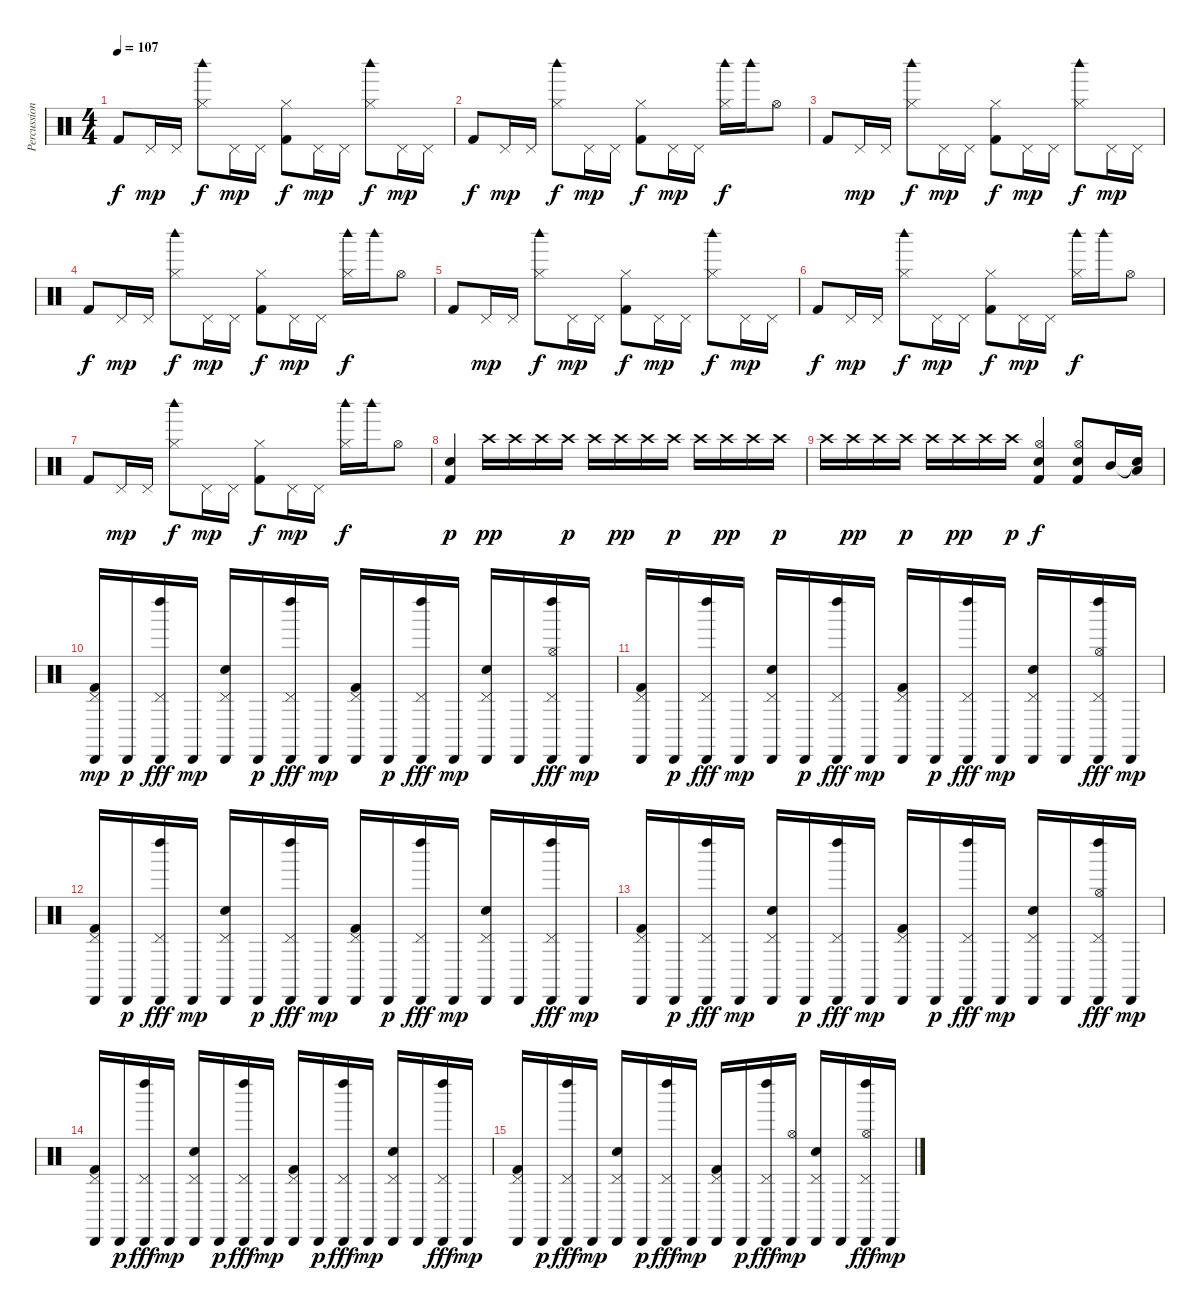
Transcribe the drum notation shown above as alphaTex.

\track ("Percussions" "Percussion") {instrument percussion}
\staff {score}
\articulation defaults
\ts (4 4)
\tempo 107
\clef neutral
\ks c "Kick (hit) 2".8{dy f} "Pedal Hi-Hat (hit)".16{dy mp} "Pedal Hi-Hat (hit)".16
("Hi-Hat (closed)" "Woodblock high (hit)").8{dy f} "Pedal Hi-Hat (hit)".16{dy mp} "Pedal Hi-Hat (hit)".16 ("Hi-Hat (closed)" "Kick (hit) 2").8{dy f} "Pedal Hi-Hat (hit)".16{dy mp} "Pedal Hi-Hat (hit)".16 ("Hi-Hat (closed)" "Woodblock high (hit)").8{dy f} "Pedal Hi-Hat (hit)".16{dy mp} "Pedal Hi-Hat (hit)".16 |
"Kick (hit) 2".8{dy f} "Pedal Hi-Hat (hit)".16{dy mp} "Pedal Hi-Hat (hit)".16 ("Hi-Hat (closed)" "Woodblock high (hit)").8{dy f} "Pedal Hi-Hat (hit)".16{dy mp} "Pedal Hi-Hat (hit)".16 ("Hi-Hat (closed)" "Kick (hit) 2").8{dy f} "Pedal Hi-Hat (hit)".16{dy mp} "Pedal Hi-Hat (hit)".16 ("Hi-Hat (closed)" "Woodblock high (hit)").16{dy f} "Woodblock high (hit)".16 "Hi-Hat (open)".8 |
"Kick (hit) 2".8 "Pedal Hi-Hat (hit)".16{dy mp} "Pedal Hi-Hat (hit)".16 ("Hi-Hat (closed)" "Woodblock high (hit)").8{dy f} "Pedal Hi-Hat (hit)".16{dy mp} "Pedal Hi-Hat (hit)".16 ("Hi-Hat (closed)" "Kick (hit) 2").8{dy f} "Pedal Hi-Hat (hit)".16{dy mp} "Pedal Hi-Hat (hit)".16 ("Hi-Hat (closed)" "Woodblock high (hit)").8{dy f} "Pedal Hi-Hat (hit)".16{dy mp} "Pedal Hi-Hat (hit)".16 |
"Kick (hit) 2".8{dy f} "Pedal Hi-Hat (hit)".16{dy mp} "Pedal Hi-Hat (hit)".16 ("Hi-Hat (closed)" "Woodblock high (hit)").8{dy f} "Pedal Hi-Hat (hit)".16{dy mp} "Pedal Hi-Hat (hit)".16 ("Hi-Hat (closed)" "Kick (hit) 2").8{dy f} "Pedal Hi-Hat (hit)".16{dy mp} "Pedal Hi-Hat (hit)".16 ("Hi-Hat (closed)" "Woodblock high (hit)").16{dy f} "Woodblock high (hit)".16 "Hi-Hat (open)".8 |
"Kick (hit) 2".8 "Pedal Hi-Hat (hit)".16{dy mp} "Pedal Hi-Hat (hit)".16 ("Hi-Hat (closed)" "Woodblock high (hit)").8{dy f} "Pedal Hi-Hat (hit)".16{dy mp} "Pedal Hi-Hat (hit)".16 ("Hi-Hat (closed)" "Kick (hit) 2").8{dy f} "Pedal Hi-Hat (hit)".16{dy mp} "Pedal Hi-Hat (hit)".16 ("Hi-Hat (closed)" "Woodblock high (hit)").8{dy f} "Pedal Hi-Hat (hit)".16{dy mp} "Pedal Hi-Hat (hit)".16 |
"Kick (hit) 2".8{dy f} "Pedal Hi-Hat (hit)".16{dy mp} "Pedal Hi-Hat (hit)".16 ("Hi-Hat (closed)" "Woodblock high (hit)").8{dy f} "Pedal Hi-Hat (hit)".16{dy mp} "Pedal Hi-Hat (hit)".16 ("Hi-Hat (closed)" "Kick (hit) 2").8{dy f} "Pedal Hi-Hat (hit)".16{dy mp} "Pedal Hi-Hat (hit)".16 ("Hi-Hat (closed)" "Woodblock high (hit)").16{dy f} "Woodblock high (hit)".16 "Hi-Hat (open)".8 |
"Kick (hit) 2".8 "Pedal Hi-Hat (hit)".16{dy mp} "Pedal Hi-Hat (hit)".16 ("Hi-Hat (closed)" "Woodblock high (hit)").8{dy f} "Pedal Hi-Hat (hit)".16{dy mp} "Pedal Hi-Hat (hit)".16 ("Hi-Hat (closed)" "Kick (hit) 2").8{dy f} "Pedal Hi-Hat (hit)".16{dy mp} "Pedal Hi-Hat (hit)".16 ("Hi-Hat (closed)" "Woodblock high (hit)").16{dy f} "Woodblock high (hit)".16 "Hi-Hat (open)".8 |
("Snare (hit) 2" "Kick (hit) 2").4{dy p} "Crash high (hit)".16{dy pp} "Crash high (hit)".16 "Crash high (hit)".16 "Crash high (hit)".16{dy p} "Crash high (hit)".16 "Crash high (hit)".16{dy pp} "Crash high (hit)".16 "Crash high (hit)".16{dy p} "Crash high (hit)".16 "Crash high (hit)".16{dy pp} "Crash high (hit)".16 "Crash high (hit)".16{dy p} |
"Crash high (hit)".16 "Crash high (hit)".16{dy pp} "Crash high (hit)".16 "Crash high (hit)".16{dy p} "Crash high (hit)".16 "Crash high (hit)".16{dy pp} "Crash high (hit)".16 "Crash high (hit)".16{dy p} ("Hi-Hat (open)" "Snare (hit) 2" "Kick (hit) 2").4{dy f} ("Hi-Hat (open)" "Snare (hit) 2" "Kick (hit) 2").8 "Mid Tom (hit)".16 ("Snare (hit)"{t} "Low Tom (hit)").16 |
("Cabasa (hit)" "Pedal Hi-Hat (hit)" "Kick (hit) 2").16{dy mp} "Cabasa (hit)".16{dy p} ("Cabasa (hit)" "Left Maraca (hit)" "Pedal Hi-Hat (hit)").16{dy fff} "Cabasa (hit)".16{dy mp} ("Cabasa (hit)" "Pedal Hi-Hat (hit)" "Snare (hit) 2").16 "Cabasa (hit)".16{dy p} ("Cabasa (hit)" "Left Maraca (hit)" "Pedal Hi-Hat (hit)").16{dy fff} "Cabasa (hit)".16{dy mp} ("Cabasa (hit)" "Pedal Hi-Hat (hit)" "Kick (hit) 2").16 "Cabasa (hit)".16{dy p} ("Cabasa (hit)" "Left Maraca (hit)" "Pedal Hi-Hat (hit)").16{dy fff} "Cabasa (hit)".16{dy mp} ("Cabasa (hit)" "Pedal Hi-Hat (hit)" "Snare (hit) 2").16 "Cabasa (hit)".16 ("Cabasa (hit)" "Left Maraca (hit)" "Pedal Hi-Hat (hit)" "Hi-Hat (open)").16{dy fff} "Cabasa (hit)".16{dy mp} |
("Cabasa (hit)" "Pedal Hi-Hat (hit)" "Kick (hit) 2").16 "Cabasa (hit)".16{dy p} ("Cabasa (hit)" "Left Maraca (hit)" "Pedal Hi-Hat (hit)").16{dy fff} "Cabasa (hit)".16{dy mp} ("Cabasa (hit)" "Pedal Hi-Hat (hit)" "Snare (hit) 2").16 "Cabasa (hit)".16{dy p} ("Cabasa (hit)" "Left Maraca (hit)" "Pedal Hi-Hat (hit)").16{dy fff} "Cabasa (hit)".16{dy mp} ("Cabasa (hit)" "Pedal Hi-Hat (hit)" "Kick (hit) 2").16 "Cabasa (hit)".16{dy p} ("Cabasa (hit)" "Left Maraca (hit)" "Pedal Hi-Hat (hit)").16{dy fff} "Cabasa (hit)".16{dy mp} ("Cabasa (hit)" "Pedal Hi-Hat (hit)" "Snare (hit) 2").16 "Cabasa (hit)".16 ("Cabasa (hit)" "Left Maraca (hit)" "Pedal Hi-Hat (hit)" "Hi-Hat (open)").16{dy fff} "Cabasa (hit)".16{dy mp} |
("Cabasa (hit)" "Pedal Hi-Hat (hit)" "Kick (hit) 2").16 "Cabasa (hit)".16{dy p} ("Cabasa (hit)" "Left Maraca (hit)" "Pedal Hi-Hat (hit)").16{dy fff} "Cabasa (hit)".16{dy mp} ("Cabasa (hit)" "Pedal Hi-Hat (hit)" "Snare (hit) 2").16 "Cabasa (hit)".16{dy p} ("Cabasa (hit)" "Left Maraca (hit)" "Pedal Hi-Hat (hit)").16{dy fff} "Cabasa (hit)".16{dy mp} ("Cabasa (hit)" "Pedal Hi-Hat (hit)" "Kick (hit) 2").16 "Cabasa (hit)".16{dy p} ("Cabasa (hit)" "Left Maraca (hit)" "Pedal Hi-Hat (hit)").16{dy fff} "Cabasa (hit)".16{dy mp} ("Cabasa (hit)" "Pedal Hi-Hat (hit)" "Snare (hit) 2").16 "Cabasa (hit)".16 ("Cabasa (hit)" "Left Maraca (hit)" "Pedal Hi-Hat (hit)").16{dy fff} "Cabasa (hit)".16{dy mp} |
("Cabasa (hit)" "Pedal Hi-Hat (hit)" "Kick (hit) 2").16{volume 0} "Cabasa (hit)".16{dy p} ("Cabasa (hit)" "Left Maraca (hit)" "Pedal Hi-Hat (hit)").16{dy fff} "Cabasa (hit)".16{dy mp} ("Cabasa (hit)" "Pedal Hi-Hat (hit)" "Snare (hit) 2").16 "Cabasa (hit)".16{dy p} ("Cabasa (hit)" "Left Maraca (hit)" "Pedal Hi-Hat (hit)").16{dy fff} "Cabasa (hit)".16{dy mp} ("Cabasa (hit)" "Pedal Hi-Hat (hit)" "Kick (hit) 2").16 "Cabasa (hit)".16{dy p} ("Cabasa (hit)" "Left Maraca (hit)" "Pedal Hi-Hat (hit)").16{dy fff} "Cabasa (hit)".16{dy mp} ("Cabasa (hit)" "Pedal Hi-Hat (hit)" "Snare (hit) 2").16 "Cabasa (hit)".16 ("Cabasa (hit)" "Left Maraca (hit)" "Pedal Hi-Hat (hit)" "Hi-Hat (open)").16{dy fff} "Cabasa (hit)".16{dy mp} |
("Cabasa (hit)" "Pedal Hi-Hat (hit)" "Kick (hit) 2").16 "Cabasa (hit)".16{dy p} ("Cabasa (hit)" "Left Maraca (hit)" "Pedal Hi-Hat (hit)").16{dy fff} "Cabasa (hit)".16{dy mp} ("Cabasa (hit)" "Pedal Hi-Hat (hit)" "Snare (hit) 2").16 "Cabasa (hit)".16{dy p} ("Cabasa (hit)" "Left Maraca (hit)" "Pedal Hi-Hat (hit)").16{dy fff} "Cabasa (hit)".16{dy mp} ("Cabasa (hit)" "Pedal Hi-Hat (hit)" "Kick (hit) 2").16 "Cabasa (hit)".16{dy p} ("Cabasa (hit)" "Left Maraca (hit)" "Pedal Hi-Hat (hit)").16{dy fff} "Cabasa (hit)".16{dy mp} ("Cabasa (hit)" "Pedal Hi-Hat (hit)" "Snare (hit) 2").16 "Cabasa (hit)".16 ("Cabasa (hit)" "Left Maraca (hit)" "Pedal Hi-Hat (hit)").16{dy fff} "Cabasa (hit)".16{dy mp} |
("Cabasa (hit)" "Pedal Hi-Hat (hit)" "Kick (hit) 2").16 "Cabasa (hit)".16{dy p} ("Cabasa (hit)" "Left Maraca (hit)" "Pedal Hi-Hat (hit)").16{dy fff} "Cabasa (hit)".16{dy mp} ("Cabasa (hit)" "Pedal Hi-Hat (hit)" "Snare (hit) 2").16 "Cabasa (hit)".16{dy p} ("Cabasa (hit)" "Left Maraca (hit)" "Pedal Hi-Hat (hit)").16{dy fff} "Cabasa (hit)".16{dy mp} ("Cabasa (hit)" "Pedal Hi-Hat (hit)" "Kick (hit) 2").16 "Cabasa (hit)".16{dy p} ("Cabasa (hit)" "Left Maraca (hit)" "Pedal Hi-Hat (hit)").16{dy fff} ("Cabasa (hit)" "Hi-Hat (open)").16{dy mp} ("Cabasa (hit)" "Pedal Hi-Hat (hit)" "Snare (hit) 2").16 "Cabasa (hit)".16 ("Cabasa (hit)" "Left Maraca (hit)" "Pedal Hi-Hat (hit)" "Hi-Hat (open)").16{dy fff} "Cabasa (hit)".16{dy mp}
